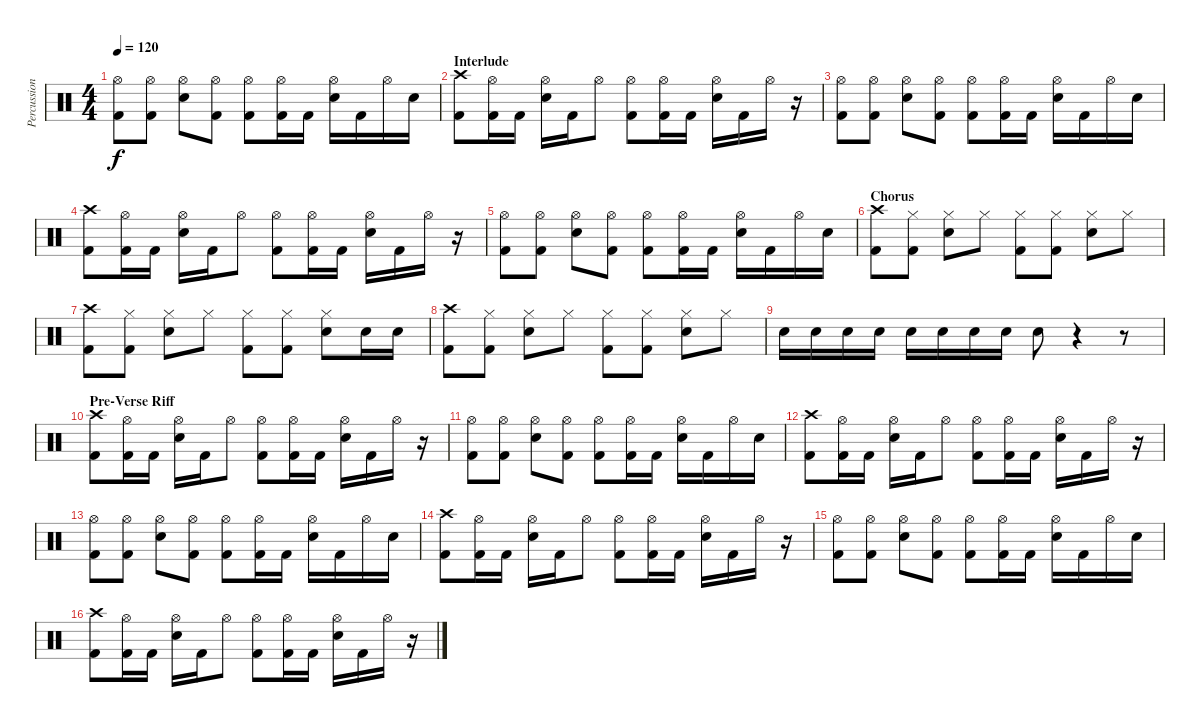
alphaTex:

\track ("Percussion" "Percussion") {instrument percussion}
\staff {score}
\articulation defaults
\ts (4 4)
\tempo 120
\clef neutral
\ks c
("Hi-Hat (open)" "Kick (hit) 2").8{dy f} ("Hi-Hat (open)" "Kick (hit) 2").8 ("Hi-Hat (open)" "Electric Snare (hit)").8 ("Hi-Hat (open)" "Kick (hit) 2").8 ("Hi-Hat (open)" "Kick (hit) 2").8 ("Hi-Hat (open)" "Kick (hit) 2").16 "Kick (hit) 2".16 ("Hi-Hat (open)" "Electric Snare (hit)").16 "Kick (hit) 2".16 "Hi-Hat (open)".16 "Electric Snare (hit)".16 |
\section ("" "Interlude")
("Crash high (hit)" "Kick (hit) 2").8 ("Hi-Hat (open)" "Kick (hit) 2").16 "Kick (hit) 2".16 ("Hi-Hat (open)" "Electric Snare (hit)").16 "Kick (hit) 2".16 "Hi-Hat (open)".8 ("Hi-Hat (open)" "Kick (hit) 2").8 ("Hi-Hat (open)" "Kick (hit) 2").16 "Kick (hit) 2".16 ("Hi-Hat (open)" "Electric Snare (hit)").16 "Kick (hit) 2".16 "Hi-Hat (open)".16 r.16 |
("Hi-Hat (open)" "Kick (hit) 2").8 ("Hi-Hat (open)" "Kick (hit) 2").8 ("Hi-Hat (open)" "Electric Snare (hit)").8 ("Hi-Hat (open)" "Kick (hit) 2").8 ("Hi-Hat (open)" "Kick (hit) 2").8 ("Hi-Hat (open)" "Kick (hit) 2").16 "Kick (hit) 2".16 ("Hi-Hat (open)" "Electric Snare (hit)").16 "Kick (hit) 2".16 "Hi-Hat (open)".16 "Electric Snare (hit)".16 |
("Crash high (hit)" "Kick (hit) 2").8 ("Hi-Hat (open)" "Kick (hit) 2").16 "Kick (hit) 2".16 ("Hi-Hat (open)" "Electric Snare (hit)").16 "Kick (hit) 2".16 "Hi-Hat (open)".8 ("Hi-Hat (open)" "Kick (hit) 2").8 ("Hi-Hat (open)" "Kick (hit) 2").16 "Kick (hit) 2".16 ("Hi-Hat (open)" "Electric Snare (hit)").16 "Kick (hit) 2".16 "Hi-Hat (open)".16 r.16 |
("Hi-Hat (open)" "Kick (hit) 2").8 ("Hi-Hat (open)" "Kick (hit) 2").8 ("Hi-Hat (open)" "Electric Snare (hit)").8 ("Hi-Hat (open)" "Kick (hit) 2").8 ("Hi-Hat (open)" "Kick (hit) 2").8 ("Hi-Hat (open)" "Kick (hit) 2").16 "Kick (hit) 2".16 ("Hi-Hat (open)" "Electric Snare (hit)").16 "Kick (hit) 2".16 "Hi-Hat (open)".16 "Electric Snare (hit)".16 |
\section ("" "Chorus")
("Crash high (hit)" "Kick (hit) 2").8 ("Hi-Hat (closed)" "Kick (hit) 2").8 ("Hi-Hat (closed)" "Electric Snare (hit)").8 "Hi-Hat (closed)".8 ("Hi-Hat (closed)" "Kick (hit) 2").8 ("Hi-Hat (closed)" "Kick (hit) 2").8 ("Hi-Hat (closed)" "Electric Snare (hit)").8 "Hi-Hat (closed)".8 |
("Crash high (hit)" "Kick (hit) 2").8 ("Hi-Hat (closed)" "Kick (hit) 2").8 ("Hi-Hat (closed)" "Electric Snare (hit)").8 "Hi-Hat (closed)".8 ("Hi-Hat (closed)" "Kick (hit) 2").8 ("Hi-Hat (closed)" "Kick (hit) 2").8 ("Hi-Hat (closed)" "Electric Snare (hit)").8 "Electric Snare (hit)".16 "Electric Snare (hit)".16 |
("Crash high (hit)" "Kick (hit) 2").8 ("Hi-Hat (closed)" "Kick (hit) 2").8 ("Hi-Hat (closed)" "Electric Snare (hit)").8 "Hi-Hat (closed)".8 ("Hi-Hat (closed)" "Kick (hit) 2").8 ("Hi-Hat (closed)" "Kick (hit) 2").8 ("Hi-Hat (closed)" "Electric Snare (hit)").8 "Hi-Hat (closed)".8 |
"Electric Snare (hit)".16 "Electric Snare (hit)".16 "Electric Snare (hit)".16 "Electric Snare (hit)".16 "Electric Snare (hit)".16 "Electric Snare (hit)".16 "Electric Snare (hit)".16 "Electric Snare (hit)".16 "Electric Snare (hit)".8 r.4 r.8 |
\section ("" "Pre-Verse Riff")
("Crash high (hit)" "Kick (hit) 2").8 ("Hi-Hat (open)" "Kick (hit) 2").16 "Kick (hit) 2".16 ("Hi-Hat (open)" "Electric Snare (hit)").16 "Kick (hit) 2".16 "Hi-Hat (open)".8 ("Hi-Hat (open)" "Kick (hit) 2").8 ("Hi-Hat (open)" "Kick (hit) 2").16 "Kick (hit) 2".16 ("Hi-Hat (open)" "Electric Snare (hit)").16 "Kick (hit) 2".16 "Hi-Hat (open)".16 r.16 |
("Hi-Hat (open)" "Kick (hit) 2").8 ("Hi-Hat (open)" "Kick (hit) 2").8 ("Hi-Hat (open)" "Electric Snare (hit)").8 ("Hi-Hat (open)" "Kick (hit) 2").8 ("Hi-Hat (open)" "Kick (hit) 2").8 ("Hi-Hat (open)" "Kick (hit) 2").16 "Kick (hit) 2".16 ("Hi-Hat (open)" "Electric Snare (hit)").16 "Kick (hit) 2".16 "Hi-Hat (open)".16 "Electric Snare (hit)".16 |
("Crash high (hit)" "Kick (hit) 2").8 ("Hi-Hat (open)" "Kick (hit) 2").16 "Kick (hit) 2".16 ("Hi-Hat (open)" "Electric Snare (hit)").16 "Kick (hit) 2".16 "Hi-Hat (open)".8 ("Hi-Hat (open)" "Kick (hit) 2").8 ("Hi-Hat (open)" "Kick (hit) 2").16 "Kick (hit) 2".16 ("Hi-Hat (open)" "Electric Snare (hit)").16 "Kick (hit) 2".16 "Hi-Hat (open)".16 r.16 |
("Hi-Hat (open)" "Kick (hit) 2").8 ("Hi-Hat (open)" "Kick (hit) 2").8 ("Hi-Hat (open)" "Electric Snare (hit)").8 ("Hi-Hat (open)" "Kick (hit) 2").8 ("Hi-Hat (open)" "Kick (hit) 2").8 ("Hi-Hat (open)" "Kick (hit) 2").16 "Kick (hit) 2".16 ("Hi-Hat (open)" "Electric Snare (hit)").16 "Kick (hit) 2".16 "Hi-Hat (open)".16 "Electric Snare (hit)".16 |
("Crash high (hit)" "Kick (hit) 2").8 ("Hi-Hat (open)" "Kick (hit) 2").16 "Kick (hit) 2".16 ("Hi-Hat (open)" "Electric Snare (hit)").16 "Kick (hit) 2".16 "Hi-Hat (open)".8 ("Hi-Hat (open)" "Kick (hit) 2").8 ("Hi-Hat (open)" "Kick (hit) 2").16 "Kick (hit) 2".16 ("Hi-Hat (open)" "Electric Snare (hit)").16 "Kick (hit) 2".16 "Hi-Hat (open)".16 r.16 |
("Hi-Hat (open)" "Kick (hit) 2").8 ("Hi-Hat (open)" "Kick (hit) 2").8 ("Hi-Hat (open)" "Electric Snare (hit)").8 ("Hi-Hat (open)" "Kick (hit) 2").8 ("Hi-Hat (open)" "Kick (hit) 2").8 ("Hi-Hat (open)" "Kick (hit) 2").16 "Kick (hit) 2".16 ("Hi-Hat (open)" "Electric Snare (hit)").16 "Kick (hit) 2".16 "Hi-Hat (open)".16 "Electric Snare (hit)".16 |
("Crash high (hit)" "Kick (hit) 2").8 ("Hi-Hat (open)" "Kick (hit) 2").16 "Kick (hit) 2".16 ("Hi-Hat (open)" "Electric Snare (hit)").16 "Kick (hit) 2".16 "Hi-Hat (open)".8 ("Hi-Hat (open)" "Kick (hit) 2").8 ("Hi-Hat (open)" "Kick (hit) 2").16 "Kick (hit) 2".16 ("Hi-Hat (open)" "Electric Snare (hit)").16 "Kick (hit) 2".16 "Hi-Hat (open)".16 r.16
